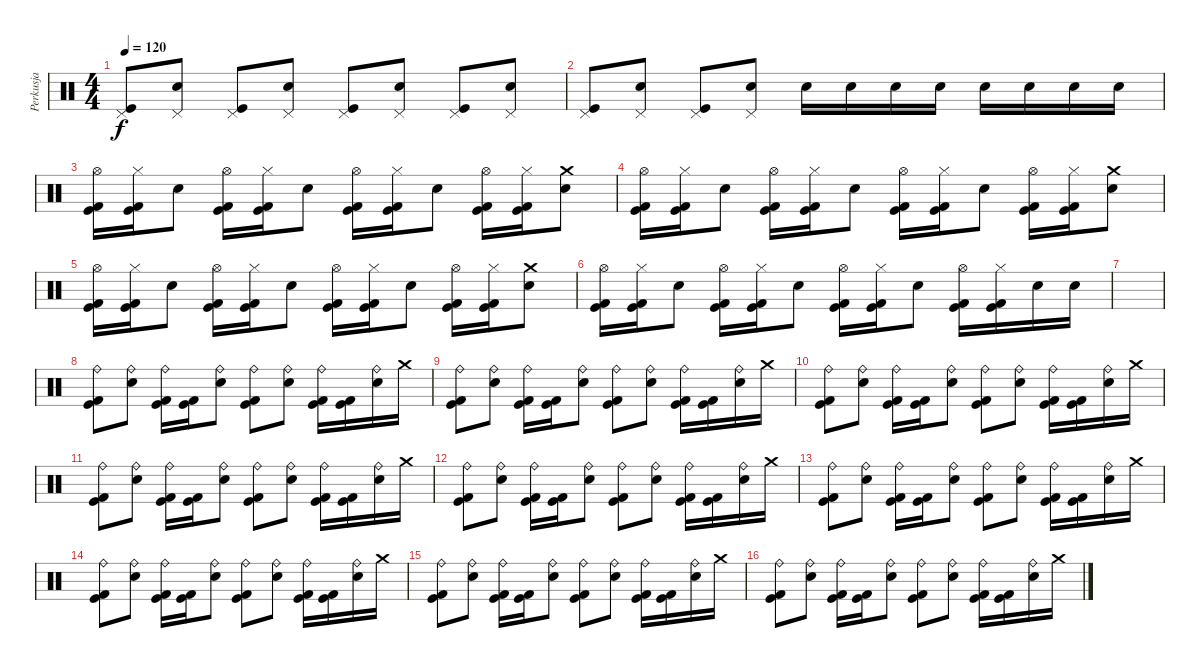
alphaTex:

\track ("Perkusja" "Perkusja") {instrument percussion}
\staff {score}
\articulation defaults
\ts (4 4)
\tempo 120
\clef neutral
\ks c
("Pedal Hi-Hat (hit)" "Kick (hit)").8{dy f} ("Pedal Hi-Hat (hit)" "Snare (hit) 2").8 ("Pedal Hi-Hat (hit)" "Kick (hit)").8 ("Pedal Hi-Hat (hit)" "Snare (hit) 2").8 ("Pedal Hi-Hat (hit)" "Kick (hit)").8 ("Pedal Hi-Hat (hit)" "Snare (hit) 2").8 ("Pedal Hi-Hat (hit)" "Kick (hit)").8 ("Pedal Hi-Hat (hit)" "Snare (hit) 2").8 |
("Pedal Hi-Hat (hit)" "Kick (hit)").8 ("Pedal Hi-Hat (hit)" "Snare (hit) 2").8 ("Pedal Hi-Hat (hit)" "Kick (hit)").8 ("Pedal Hi-Hat (hit)" "Snare (hit) 2").8 "Snare (hit) 2".16 "Snare (hit) 2".16 "Snare (hit) 2".16 "Snare (hit) 2".16 "Snare (hit) 2".16 "Snare (hit) 2".16 "Snare (hit) 2".16 "Snare (hit) 2".16 |
("Hi-Hat (open)" "Kick (hit)" "Kick (hit) 2").16 ("Hi-Hat (closed)" "Kick (hit)" "Kick (hit) 2").16 "Snare (hit) 2".8 ("Hi-Hat (open)" "Kick (hit)" "Kick (hit) 2").16 ("Hi-Hat (closed)" "Kick (hit)" "Kick (hit) 2").16 "Snare (hit) 2".8 ("Hi-Hat (open)" "Kick (hit)" "Kick (hit) 2").16 ("Hi-Hat (closed)" "Kick (hit)" "Kick (hit) 2").16 "Snare (hit) 2".8 ("Hi-Hat (open)" "Kick (hit)" "Kick (hit) 2").16 ("Hi-Hat (closed)" "Kick (hit)" "Kick (hit) 2").16 ("Crash medium (hit)" "Snare (hit) 2").8 |
("Hi-Hat (open)" "Kick (hit)" "Kick (hit) 2").16 ("Hi-Hat (closed)" "Kick (hit)" "Kick (hit) 2").16 "Snare (hit) 2".8 ("Hi-Hat (open)" "Kick (hit)" "Kick (hit) 2").16 ("Hi-Hat (closed)" "Kick (hit)" "Kick (hit) 2").16 "Snare (hit) 2".8 ("Hi-Hat (open)" "Kick (hit)" "Kick (hit) 2").16 ("Hi-Hat (closed)" "Kick (hit)" "Kick (hit) 2").16 "Snare (hit) 2".8 ("Hi-Hat (open)" "Kick (hit)" "Kick (hit) 2").16 ("Hi-Hat (closed)" "Kick (hit)" "Kick (hit) 2").16 ("Crash medium (hit)" "Snare (hit) 2").8 |
("Hi-Hat (open)" "Kick (hit)" "Kick (hit) 2").16 ("Hi-Hat (closed)" "Kick (hit)" "Kick (hit) 2").16 "Snare (hit) 2".8 ("Hi-Hat (open)" "Kick (hit)" "Kick (hit) 2").16 ("Hi-Hat (closed)" "Kick (hit)" "Kick (hit) 2").16 "Snare (hit) 2".8 ("Hi-Hat (open)" "Kick (hit)" "Kick (hit) 2").16 ("Hi-Hat (closed)" "Kick (hit)" "Kick (hit) 2").16 "Snare (hit) 2".8 ("Hi-Hat (open)" "Kick (hit)" "Kick (hit) 2").16 ("Hi-Hat (closed)" "Kick (hit)" "Kick (hit) 2").16 ("Crash medium (hit)" "Snare (hit) 2").8 |
("Hi-Hat (open)" "Kick (hit)" "Kick (hit) 2").16 ("Hi-Hat (closed)" "Kick (hit)" "Kick (hit) 2").16 "Snare (hit) 2".8 ("Hi-Hat (open)" "Kick (hit)" "Kick (hit) 2").16 ("Hi-Hat (closed)" "Kick (hit)" "Kick (hit) 2").16 "Snare (hit) 2".8 ("Hi-Hat (open)" "Kick (hit)" "Kick (hit) 2").16 ("Hi-Hat (closed)" "Kick (hit)" "Kick (hit) 2").16 "Snare (hit) 2".8 ("Hi-Hat (open)" "Kick (hit)" "Kick (hit) 2").16 ("Hi-Hat (closed)" "Kick (hit)" "Kick (hit) 2").16 "Snare (hit) 2".16 "Snare (hit) 2".16 |
|
("Ride (bell)" "Kick (hit)" "Kick (hit) 2").8 ("Ride (bell)" "Snare (hit) 2").8 ("Ride (bell)" "Kick (hit)" "Kick (hit) 2").16 ("Kick (hit)" "Kick (hit) 2").16 ("Ride (bell)" "Snare (hit) 2").8 ("Ride (bell)" "Kick (hit)" "Kick (hit) 2").8 ("Ride (bell)" "Snare (hit) 2").8 ("Ride (bell)" "Kick (hit)" "Kick (hit) 2").16 ("Kick (hit)" "Kick (hit) 2").16 ("Ride (bell)" "Snare (hit) 2").16 "Crash medium (hit)".16 |
("Ride (bell)" "Kick (hit)" "Kick (hit) 2").8 ("Ride (bell)" "Snare (hit) 2").8 ("Ride (bell)" "Kick (hit)" "Kick (hit) 2").16 ("Kick (hit)" "Kick (hit) 2").16 ("Ride (bell)" "Snare (hit) 2").8 ("Ride (bell)" "Kick (hit)" "Kick (hit) 2").8 ("Ride (bell)" "Snare (hit) 2").8 ("Ride (bell)" "Kick (hit)" "Kick (hit) 2").16 ("Kick (hit)" "Kick (hit) 2").16 ("Ride (bell)" "Snare (hit) 2").16 "Crash medium (hit)".16 |
("Ride (bell)" "Kick (hit)" "Kick (hit) 2").8 ("Ride (bell)" "Snare (hit) 2").8 ("Ride (bell)" "Kick (hit)" "Kick (hit) 2").16 ("Kick (hit)" "Kick (hit) 2").16 ("Ride (bell)" "Snare (hit) 2").8 ("Ride (bell)" "Kick (hit)" "Kick (hit) 2").8 ("Ride (bell)" "Snare (hit) 2").8 ("Ride (bell)" "Kick (hit)" "Kick (hit) 2").16 ("Kick (hit)" "Kick (hit) 2").16 ("Ride (bell)" "Snare (hit) 2").16 "Crash medium (hit)".16 |
("Ride (bell)" "Kick (hit)" "Kick (hit) 2").8 ("Ride (bell)" "Snare (hit) 2").8 ("Ride (bell)" "Kick (hit)" "Kick (hit) 2").16 ("Kick (hit)" "Kick (hit) 2").16 ("Ride (bell)" "Snare (hit) 2").8 ("Ride (bell)" "Kick (hit)" "Kick (hit) 2").8 ("Ride (bell)" "Snare (hit) 2").8 ("Ride (bell)" "Kick (hit)" "Kick (hit) 2").16 ("Kick (hit)" "Kick (hit) 2").16 ("Ride (bell)" "Snare (hit) 2").16 "Crash medium (hit)".16 |
("Ride (bell)" "Kick (hit)" "Kick (hit) 2").8 ("Ride (bell)" "Snare (hit) 2").8 ("Ride (bell)" "Kick (hit)" "Kick (hit) 2").16 ("Kick (hit)" "Kick (hit) 2").16 ("Ride (bell)" "Snare (hit) 2").8 ("Ride (bell)" "Kick (hit)" "Kick (hit) 2").8 ("Ride (bell)" "Snare (hit) 2").8 ("Ride (bell)" "Kick (hit)" "Kick (hit) 2").16 ("Kick (hit)" "Kick (hit) 2").16 ("Ride (bell)" "Snare (hit) 2").16 "Crash medium (hit)".16 |
("Ride (bell)" "Kick (hit)" "Kick (hit) 2").8 ("Ride (bell)" "Snare (hit) 2").8 ("Ride (bell)" "Kick (hit)" "Kick (hit) 2").16 ("Kick (hit)" "Kick (hit) 2").16 ("Ride (bell)" "Snare (hit) 2").8 ("Ride (bell)" "Kick (hit)" "Kick (hit) 2").8 ("Ride (bell)" "Snare (hit) 2").8 ("Ride (bell)" "Kick (hit)" "Kick (hit) 2").16 ("Kick (hit)" "Kick (hit) 2").16 ("Ride (bell)" "Snare (hit) 2").16 "Crash medium (hit)".16 |
("Ride (bell)" "Kick (hit)" "Kick (hit) 2").8 ("Ride (bell)" "Snare (hit) 2").8 ("Ride (bell)" "Kick (hit)" "Kick (hit) 2").16 ("Kick (hit)" "Kick (hit) 2").16 ("Ride (bell)" "Snare (hit) 2").8 ("Ride (bell)" "Kick (hit)" "Kick (hit) 2").8 ("Ride (bell)" "Snare (hit) 2").8 ("Ride (bell)" "Kick (hit)" "Kick (hit) 2").16 ("Kick (hit)" "Kick (hit) 2").16 ("Ride (bell)" "Snare (hit) 2").16 "Crash medium (hit)".16 |
("Ride (bell)" "Kick (hit)" "Kick (hit) 2").8 ("Ride (bell)" "Snare (hit) 2").8 ("Ride (bell)" "Kick (hit)" "Kick (hit) 2").16 ("Kick (hit)" "Kick (hit) 2").16 ("Ride (bell)" "Snare (hit) 2").8 ("Ride (bell)" "Kick (hit)" "Kick (hit) 2").8 ("Ride (bell)" "Snare (hit) 2").8 ("Ride (bell)" "Kick (hit)" "Kick (hit) 2").16 ("Kick (hit)" "Kick (hit) 2").16 ("Ride (bell)" "Snare (hit) 2").16 "Crash medium (hit)".16 |
("Ride (bell)" "Kick (hit)" "Kick (hit) 2").8 ("Ride (bell)" "Snare (hit) 2").8 ("Ride (bell)" "Kick (hit)" "Kick (hit) 2").16 ("Kick (hit)" "Kick (hit) 2").16 ("Ride (bell)" "Snare (hit) 2").8 ("Ride (bell)" "Kick (hit)" "Kick (hit) 2").8 ("Ride (bell)" "Snare (hit) 2").8 ("Ride (bell)" "Kick (hit)" "Kick (hit) 2").16 ("Kick (hit)" "Kick (hit) 2").16 ("Ride (bell)" "Snare (hit) 2").16 "Crash medium (hit)".16
